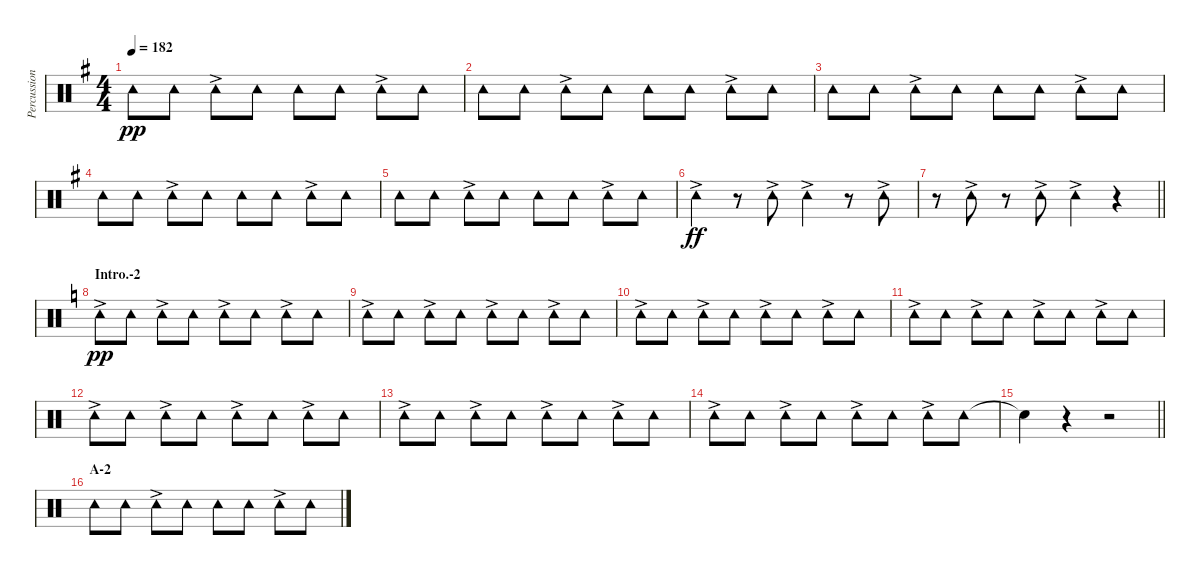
\track ("Percussion (Tainaka Ritsu)" "Percussion") {instrument percussion}
\staff {score}
\articulation defaults
\ts (4 4)
\tempo 182
\clef neutral
\ks g "Tambourine (hit)".8{dy pp} "Tambourine (hit)".8 "Tambourine (hit)"{ac}.8 "Tambourine (hit)".8 "Tambourine (hit)".8 "Tambourine (hit)".8 "Tambourine (hit)"{ac}.8 "Tambourine (hit)".8
|
"Tambourine (hit)".8 "Tambourine (hit)".8 "Tambourine (hit)"{ac}.8 "Tambourine (hit)".8 "Tambourine (hit)".8 "Tambourine (hit)".8 "Tambourine (hit)"{ac}.8 "Tambourine (hit)".8 |
"Tambourine (hit)".8 "Tambourine (hit)".8 "Tambourine (hit)"{ac}.8 "Tambourine (hit)".8 "Tambourine (hit)".8 "Tambourine (hit)".8 "Tambourine (hit)"{ac}.8 "Tambourine (hit)".8 |
"Tambourine (hit)".8 "Tambourine (hit)".8 "Tambourine (hit)"{ac}.8 "Tambourine (hit)".8 "Tambourine (hit)".8 "Tambourine (hit)".8 "Tambourine (hit)"{ac}.8 "Tambourine (hit)".8 |
"Tambourine (hit)".8 "Tambourine (hit)".8 "Tambourine (hit)"{ac}.8 "Tambourine (hit)".8 "Tambourine (hit)".8 "Tambourine (hit)".8 "Tambourine (hit)"{ac}.8 "Tambourine (hit)".8 |
"Tambourine (hit)"{ac}.4{dy ff} r.8 "Tambourine (hit)"{ac}.8 "Tambourine (hit)"{ac}.4 r.8 "Tambourine (hit)"{ac}.8 |
\barLineRight lightlight
r.8 "Tambourine (hit)"{ac}.8 r.8 "Tambourine (hit)"{ac}.8 "Tambourine (hit)"{ac}.4 r.4 |
\section ("" "Intro.-2")
\ks c "Tambourine (hit)"{ac}.8{dy pp} "Tambourine (hit)".8 "Tambourine (hit)"{ac}.8 "Tambourine (hit)".8 "Tambourine (hit)"{ac}.8 "Tambourine (hit)".8 "Tambourine (hit)"{ac}.8 "Tambourine (hit)".8
|
"Tambourine (hit)"{ac}.8 "Tambourine (hit)".8 "Tambourine (hit)"{ac}.8 "Tambourine (hit)".8 "Tambourine (hit)"{ac}.8 "Tambourine (hit)".8 "Tambourine (hit)"{ac}.8 "Tambourine (hit)".8 |
"Tambourine (hit)"{ac}.8 "Tambourine (hit)".8 "Tambourine (hit)"{ac}.8 "Tambourine (hit)".8 "Tambourine (hit)"{ac}.8 "Tambourine (hit)".8 "Tambourine (hit)"{ac}.8 "Tambourine (hit)".8 |
"Tambourine (hit)"{ac}.8 "Tambourine (hit)".8 "Tambourine (hit)"{ac}.8 "Tambourine (hit)".8 "Tambourine (hit)"{ac}.8 "Tambourine (hit)".8 "Tambourine (hit)"{ac}.8 "Tambourine (hit)".8 |
"Tambourine (hit)"{ac}.8 "Tambourine (hit)".8 "Tambourine (hit)"{ac}.8 "Tambourine (hit)".8 "Tambourine (hit)"{ac}.8 "Tambourine (hit)".8 "Tambourine (hit)"{ac}.8 "Tambourine (hit)".8 |
"Tambourine (hit)"{ac}.8 "Tambourine (hit)".8 "Tambourine (hit)"{ac}.8 "Tambourine (hit)".8 "Tambourine (hit)"{ac}.8 "Tambourine (hit)".8 "Tambourine (hit)"{ac}.8 "Tambourine (hit)".8 |
"Tambourine (hit)"{ac}.8 "Tambourine (hit)".8 "Tambourine (hit)"{ac}.8 "Tambourine (hit)".8 "Tambourine (hit)"{ac}.8 "Tambourine (hit)".8 "Tambourine (hit)"{ac}.8 "Tambourine (hit)".8 |
\barLineRight lightlight "Snare (hit)"{t}.4
r.4 r.2 |
\section ("" "A-2")
"Tambourine (hit)".8 "Tambourine (hit)".8 "Tambourine (hit)"{ac}.8 "Tambourine (hit)".8 "Tambourine (hit)".8 "Tambourine (hit)".8 "Tambourine (hit)"{ac}.8 "Tambourine (hit)".8
